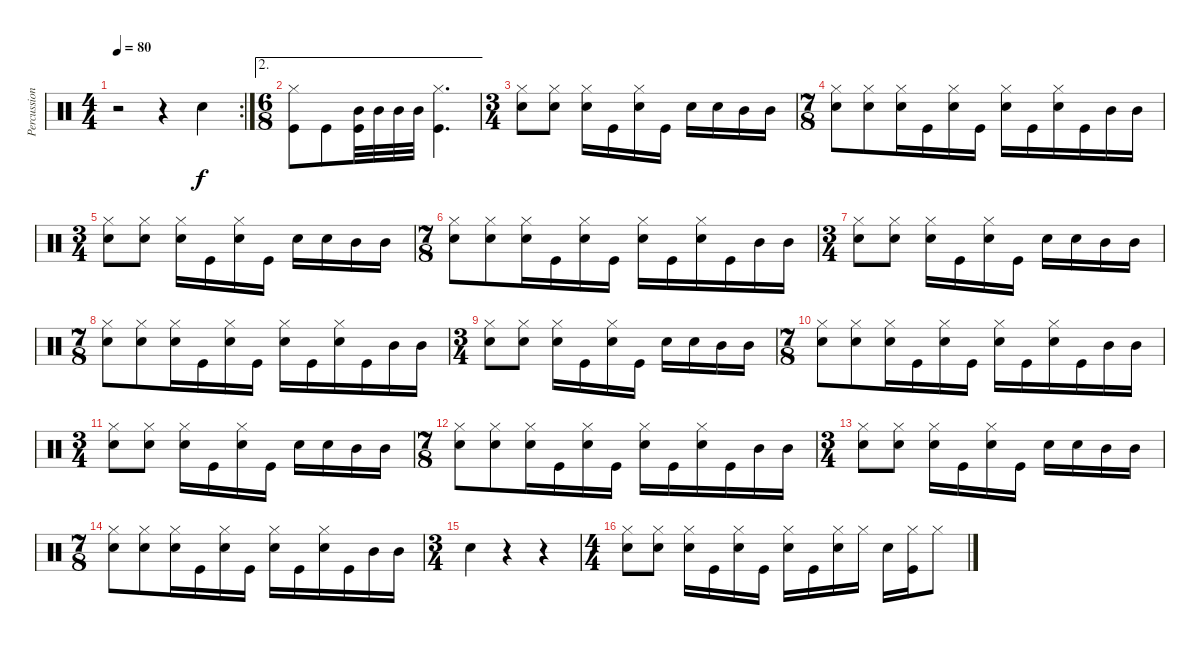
\track ("Percussion" "Percussion") {instrument percussion}
\staff {score}
\articulation defaults
\rc 2
\ts (4 4)
\tempo 80
\clef neutral
\ks c
r.2{dy f} r.4 "Snare (hit) 2".4 |
\ae 2
\ts (6 8)
("Hi-Hat (closed)" "Kick (hit)").8 "Kick (hit)".8 ("Mid Tom (hit)" "Kick (hit)").32 "Mid Tom (hit)".32 "Mid Tom (hit)".32 "Mid Tom (hit)".32 ("Hi-Hat (closed)" "Kick (hit)").4{d} |
\ts (3 4)
("Hi-Hat (closed)" "Snare (hit) 2").8 ("Hi-Hat (closed)" "Snare (hit) 2").8 ("Hi-Hat (closed)" "Snare (hit) 2").16 "Kick (hit)".16 ("Hi-Hat (closed)" "Snare (hit) 2").16 "Kick (hit)".16 "Snare (hit) 2".16 "Snare (hit) 2".16 "Mid Tom (hit)".16 "Mid Tom (hit)".16 |
\ts (7 8)
("Hi-Hat (closed)" "Snare (hit) 2").8 ("Hi-Hat (closed)" "Snare (hit) 2").8 ("Hi-Hat (closed)" "Snare (hit) 2").16 "Kick (hit)".16 ("Hi-Hat (closed)" "Snare (hit) 2").16 "Kick (hit)".16 ("Hi-Hat (closed)" "Snare (hit) 2").16 "Kick (hit)".16 ("Hi-Hat (closed)" "Snare (hit) 2").16 "Kick (hit)".16 "Mid Tom (hit)".16 "Mid Tom (hit)".16 |
\ts (3 4)
("Hi-Hat (closed)" "Snare (hit) 2").8 ("Hi-Hat (closed)" "Snare (hit) 2").8 ("Hi-Hat (closed)" "Snare (hit) 2").16 "Kick (hit)".16 ("Hi-Hat (closed)" "Snare (hit) 2").16 "Kick (hit)".16 "Snare (hit) 2".16 "Snare (hit) 2".16 "Mid Tom (hit)".16 "Mid Tom (hit)".16 |
\ts (7 8)
("Hi-Hat (closed)" "Snare (hit) 2").8 ("Hi-Hat (closed)" "Snare (hit) 2").8 ("Hi-Hat (closed)" "Snare (hit) 2").16 "Kick (hit)".16 ("Hi-Hat (closed)" "Snare (hit) 2").16 "Kick (hit)".16 ("Hi-Hat (closed)" "Snare (hit) 2").16 "Kick (hit)".16 ("Hi-Hat (closed)" "Snare (hit) 2").16 "Kick (hit)".16 "Mid Tom (hit)".16 "Mid Tom (hit)".16 |
\ts (3 4)
("Hi-Hat (closed)" "Snare (hit) 2").8 ("Hi-Hat (closed)" "Snare (hit) 2").8 ("Hi-Hat (closed)" "Snare (hit) 2").16 "Kick (hit)".16 ("Hi-Hat (closed)" "Snare (hit) 2").16 "Kick (hit)".16 "Snare (hit) 2".16 "Snare (hit) 2".16 "Mid Tom (hit)".16 "Mid Tom (hit)".16 |
\ts (7 8)
("Hi-Hat (closed)" "Snare (hit) 2").8 ("Hi-Hat (closed)" "Snare (hit) 2").8 ("Hi-Hat (closed)" "Snare (hit) 2").16 "Kick (hit)".16 ("Hi-Hat (closed)" "Snare (hit) 2").16 "Kick (hit)".16 ("Hi-Hat (closed)" "Snare (hit) 2").16 "Kick (hit)".16 ("Hi-Hat (closed)" "Snare (hit) 2").16 "Kick (hit)".16 "Mid Tom (hit)".16 "Mid Tom (hit)".16 |
\ts (3 4)
("Hi-Hat (closed)" "Snare (hit) 2").8 ("Hi-Hat (closed)" "Snare (hit) 2").8 ("Hi-Hat (closed)" "Snare (hit) 2").16 "Kick (hit)".16 ("Hi-Hat (closed)" "Snare (hit) 2").16 "Kick (hit)".16 "Snare (hit) 2".16 "Snare (hit) 2".16 "Mid Tom (hit)".16 "Mid Tom (hit)".16 |
\ts (7 8)
("Hi-Hat (closed)" "Snare (hit) 2").8 ("Hi-Hat (closed)" "Snare (hit) 2").8 ("Hi-Hat (closed)" "Snare (hit) 2").16 "Kick (hit)".16 ("Hi-Hat (closed)" "Snare (hit) 2").16 "Kick (hit)".16 ("Hi-Hat (closed)" "Snare (hit) 2").16 "Kick (hit)".16 ("Hi-Hat (closed)" "Snare (hit) 2").16 "Kick (hit)".16 "Mid Tom (hit)".16 "Mid Tom (hit)".16 |
\ts (3 4)
("Hi-Hat (closed)" "Snare (hit) 2").8 ("Hi-Hat (closed)" "Snare (hit) 2").8 ("Hi-Hat (closed)" "Snare (hit) 2").16 "Kick (hit)".16 ("Hi-Hat (closed)" "Snare (hit) 2").16 "Kick (hit)".16 "Snare (hit) 2".16 "Snare (hit) 2".16 "Mid Tom (hit)".16 "Mid Tom (hit)".16 |
\ts (7 8)
("Hi-Hat (closed)" "Snare (hit) 2").8 ("Hi-Hat (closed)" "Snare (hit) 2").8 ("Hi-Hat (closed)" "Snare (hit) 2").16 "Kick (hit)".16 ("Hi-Hat (closed)" "Snare (hit) 2").16 "Kick (hit)".16 ("Hi-Hat (closed)" "Snare (hit) 2").16 "Kick (hit)".16 ("Hi-Hat (closed)" "Snare (hit) 2").16 "Kick (hit)".16 "Mid Tom (hit)".16 "Mid Tom (hit)".16 |
\ts (3 4)
("Hi-Hat (closed)" "Snare (hit) 2").8 ("Hi-Hat (closed)" "Snare (hit) 2").8 ("Hi-Hat (closed)" "Snare (hit) 2").16 "Kick (hit)".16 ("Hi-Hat (closed)" "Snare (hit) 2").16 "Kick (hit)".16 "Snare (hit) 2".16 "Snare (hit) 2".16 "Mid Tom (hit)".16 "Mid Tom (hit)".16 |
\ts (7 8)
("Hi-Hat (closed)" "Snare (hit) 2").8 ("Hi-Hat (closed)" "Snare (hit) 2").8 ("Hi-Hat (closed)" "Snare (hit) 2").16 "Kick (hit)".16 ("Hi-Hat (closed)" "Snare (hit) 2").16 "Kick (hit)".16 ("Hi-Hat (closed)" "Snare (hit) 2").16 "Kick (hit)".16 ("Hi-Hat (closed)" "Snare (hit) 2").16 "Kick (hit)".16 "Mid Tom (hit)".16 "Mid Tom (hit)".16 |
\ts (3 4)
"Snare (hit) 2".4 r.4 r.4 |
\ts (4 4)
("Hi-Hat (closed)" "Snare (hit) 2").8 ("Hi-Hat (closed)" "Snare (hit) 2").8 ("Hi-Hat (closed)" "Snare (hit) 2").16 "Kick (hit)".16 ("Hi-Hat (closed)" "Snare (hit) 2").16 "Kick (hit)".16 ("Hi-Hat (closed)" "Snare (hit) 2").16 "Kick (hit)".16 ("Hi-Hat (closed)" "Snare (hit) 2").16 "Hi-Hat (closed)".16 "Snare (hit) 2".16 ("Hi-Hat (closed)" "Kick (hit)").16 "Hi-Hat (closed)".8
